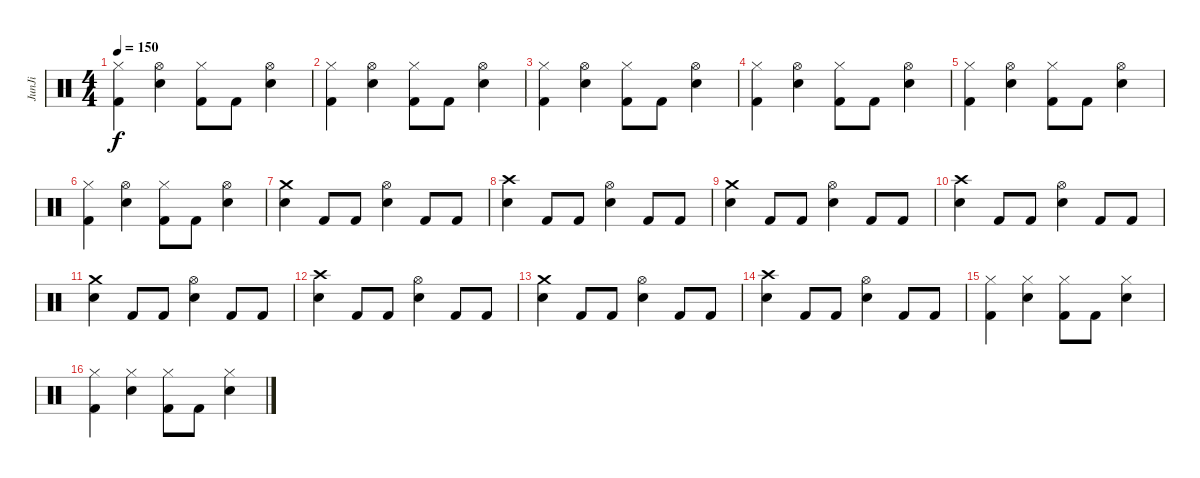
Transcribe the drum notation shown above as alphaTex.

\track ("JunJi" "JunJi") {instrument percussion}
\staff {score}
\articulation defaults
\ts (4 4)
\tempo 150
\clef neutral
\ks c
("Hi-Hat (closed)" "Kick (hit) 2").4{dy f} ("Electric Snare (hit)" "Hi-Hat (open)").4 ("Hi-Hat (closed)" "Kick (hit) 2").8 "Kick (hit) 2".8 ("Electric Snare (hit)" "Hi-Hat (open)").4 |
("Hi-Hat (closed)" "Kick (hit) 2").4 ("Electric Snare (hit)" "Hi-Hat (open)").4 ("Hi-Hat (closed)" "Kick (hit) 2").8 "Kick (hit) 2".8 ("Electric Snare (hit)" "Hi-Hat (open)").4 |
("Hi-Hat (closed)" "Kick (hit) 2").4 ("Electric Snare (hit)" "Hi-Hat (open)").4 ("Hi-Hat (closed)" "Kick (hit) 2").8 "Kick (hit) 2".8 ("Electric Snare (hit)" "Hi-Hat (open)").4 |
("Hi-Hat (closed)" "Kick (hit) 2").4 ("Electric Snare (hit)" "Hi-Hat (open)").4 ("Hi-Hat (closed)" "Kick (hit) 2").8 "Kick (hit) 2".8 ("Electric Snare (hit)" "Hi-Hat (open)").4 |
("Hi-Hat (closed)" "Kick (hit) 2").4 ("Electric Snare (hit)" "Hi-Hat (open)").4 ("Hi-Hat (closed)" "Kick (hit) 2").8 "Kick (hit) 2".8 ("Electric Snare (hit)" "Hi-Hat (open)").4 |
("Hi-Hat (closed)" "Kick (hit) 2").4 ("Electric Snare (hit)" "Hi-Hat (open)").4 ("Hi-Hat (closed)" "Kick (hit) 2").8 "Kick (hit) 2".8 ("Electric Snare (hit)" "Hi-Hat (open)").4 |
("Crash medium (hit)" "Electric Snare (hit)").4 "Kick (hit) 2".8 "Kick (hit) 2".8 ("Hi-Hat (open)" "Electric Snare (hit)").4 "Kick (hit) 2".8 "Kick (hit) 2".8 |
("Crash high (hit)" "Electric Snare (hit)").4 "Kick (hit) 2".8 "Kick (hit) 2".8 ("Hi-Hat (open)" "Electric Snare (hit)").4 "Kick (hit) 2".8 "Kick (hit) 2".8 |
("Crash medium (hit)" "Electric Snare (hit)").4 "Kick (hit) 2".8 "Kick (hit) 2".8 ("Hi-Hat (open)" "Electric Snare (hit)").4 "Kick (hit) 2".8 "Kick (hit) 2".8 |
("Crash high (hit)" "Electric Snare (hit)").4 "Kick (hit) 2".8 "Kick (hit) 2".8 ("Hi-Hat (open)" "Electric Snare (hit)").4 "Kick (hit) 2".8 "Kick (hit) 2".8 |
("Crash medium (hit)" "Electric Snare (hit)").4 "Kick (hit) 2".8 "Kick (hit) 2".8 ("Hi-Hat (open)" "Electric Snare (hit)").4 "Kick (hit) 2".8 "Kick (hit) 2".8 |
("Crash high (hit)" "Electric Snare (hit)").4 "Kick (hit) 2".8 "Kick (hit) 2".8 ("Hi-Hat (open)" "Electric Snare (hit)").4 "Kick (hit) 2".8 "Kick (hit) 2".8 |
("Crash medium (hit)" "Electric Snare (hit)").4 "Kick (hit) 2".8 "Kick (hit) 2".8 ("Hi-Hat (open)" "Electric Snare (hit)").4 "Kick (hit) 2".8 "Kick (hit) 2".8 |
("Crash high (hit)" "Electric Snare (hit)").4 "Kick (hit) 2".8 "Kick (hit) 2".8 ("Hi-Hat (open)" "Electric Snare (hit)").4 "Kick (hit) 2".8 "Kick (hit) 2".8 |
("Hi-Hat (closed)" "Kick (hit) 2").4 ("Electric Snare (hit)" "Hi-Hat (closed)").4 ("Hi-Hat (closed)" "Kick (hit) 2").8 "Kick (hit) 2".8 ("Electric Snare (hit)" "Hi-Hat (closed)").4 |
("Hi-Hat (closed)" "Kick (hit) 2").4 ("Electric Snare (hit)" "Hi-Hat (closed)").4 ("Hi-Hat (closed)" "Kick (hit) 2").8 "Kick (hit) 2".8 ("Electric Snare (hit)" "Hi-Hat (closed)").4
